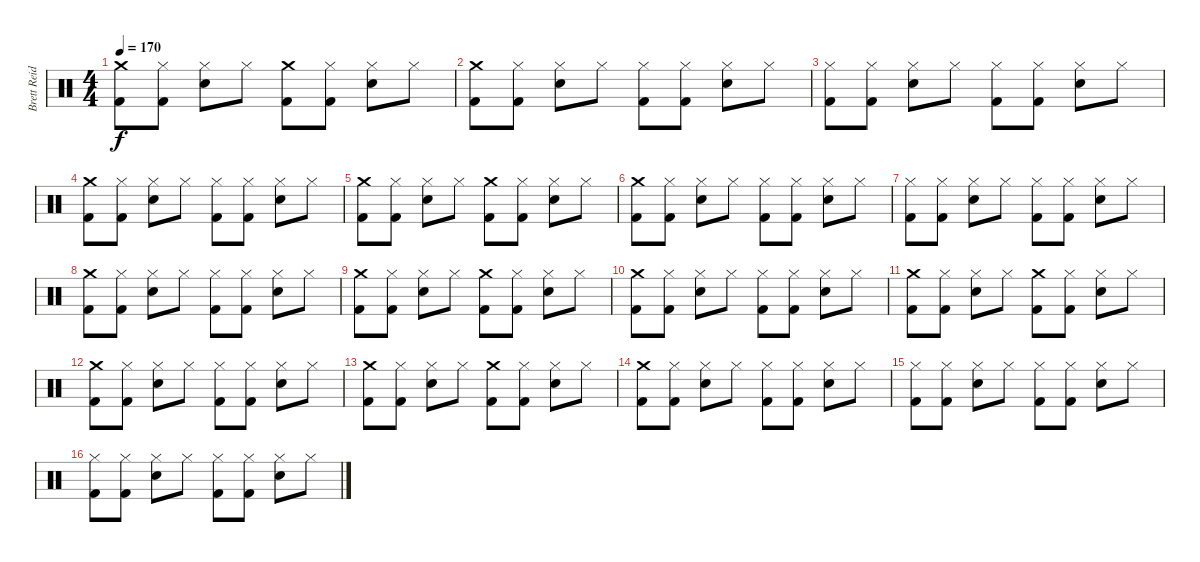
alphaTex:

\track ("Brett Reid" "Brett Reid") {instrument percussion}
\staff {score}
\articulation defaults
\ts (4 4)
\tempo 170
\clef neutral
\ks c
("Crash medium (hit)" "Kick (hit) 2").8{dy f} ("Hi-Hat (closed)" "Kick (hit) 2").8 ("Hi-Hat (closed)" "Snare (hit) 2").8 "Hi-Hat (closed)".8 ("Crash medium (hit)" "Kick (hit) 2").8 ("Hi-Hat (closed)" "Kick (hit) 2").8 ("Hi-Hat (closed)" "Snare (hit) 2").8 "Hi-Hat (closed)".8 |
("Crash medium (hit)" "Kick (hit) 2").8 ("Hi-Hat (closed)" "Kick (hit) 2").8 ("Hi-Hat (closed)" "Snare (hit) 2").8 "Hi-Hat (closed)".8 ("Hi-Hat (closed)" "Kick (hit) 2").8 ("Hi-Hat (closed)" "Kick (hit) 2").8 ("Hi-Hat (closed)" "Snare (hit) 2").8 "Hi-Hat (closed)".8 |
("Hi-Hat (closed)" "Kick (hit) 2").8 ("Hi-Hat (closed)" "Kick (hit) 2").8 ("Hi-Hat (closed)" "Snare (hit) 2").8 "Hi-Hat (closed)".8 ("Hi-Hat (closed)" "Kick (hit) 2").8 ("Hi-Hat (closed)" "Kick (hit) 2").8 ("Hi-Hat (closed)" "Snare (hit) 2").8 "Hi-Hat (closed)".8 |
("Crash medium (hit)" "Kick (hit) 2").8 ("Hi-Hat (closed)" "Kick (hit) 2").8 ("Hi-Hat (closed)" "Snare (hit) 2").8 "Hi-Hat (closed)".8 ("Hi-Hat (closed)" "Kick (hit) 2").8 ("Hi-Hat (closed)" "Kick (hit) 2").8 ("Hi-Hat (closed)" "Snare (hit) 2").8 "Hi-Hat (closed)".8 |
("Crash medium (hit)" "Kick (hit) 2").8 ("Hi-Hat (closed)" "Kick (hit) 2").8 ("Hi-Hat (closed)" "Snare (hit) 2").8 "Hi-Hat (closed)".8 ("Crash medium (hit)" "Kick (hit) 2").8 ("Hi-Hat (closed)" "Kick (hit) 2").8 ("Hi-Hat (closed)" "Snare (hit) 2").8 "Hi-Hat (closed)".8 |
("Crash medium (hit)" "Kick (hit) 2").8 ("Hi-Hat (closed)" "Kick (hit) 2").8 ("Hi-Hat (closed)" "Snare (hit) 2").8 "Hi-Hat (closed)".8 ("Hi-Hat (closed)" "Kick (hit) 2").8 ("Hi-Hat (closed)" "Kick (hit) 2").8 ("Hi-Hat (closed)" "Snare (hit) 2").8 "Hi-Hat (closed)".8 |
("Hi-Hat (closed)" "Kick (hit) 2").8 ("Hi-Hat (closed)" "Kick (hit) 2").8 ("Hi-Hat (closed)" "Snare (hit) 2").8 "Hi-Hat (closed)".8 ("Hi-Hat (closed)" "Kick (hit) 2").8 ("Hi-Hat (closed)" "Kick (hit) 2").8 ("Hi-Hat (closed)" "Snare (hit) 2").8 "Hi-Hat (closed)".8 |
("Crash medium (hit)" "Kick (hit) 2").8 ("Hi-Hat (closed)" "Kick (hit) 2").8 ("Hi-Hat (closed)" "Snare (hit) 2").8 "Hi-Hat (closed)".8 ("Hi-Hat (closed)" "Kick (hit) 2").8 ("Hi-Hat (closed)" "Kick (hit) 2").8 ("Hi-Hat (closed)" "Snare (hit) 2").8 "Hi-Hat (closed)".8 |
("Crash medium (hit)" "Kick (hit) 2").8 ("Hi-Hat (closed)" "Kick (hit) 2").8 ("Hi-Hat (closed)" "Snare (hit) 2").8 "Hi-Hat (closed)".8 ("Crash medium (hit)" "Kick (hit) 2").8 ("Hi-Hat (closed)" "Kick (hit) 2").8 ("Hi-Hat (closed)" "Snare (hit) 2").8 "Hi-Hat (closed)".8 |
("Crash medium (hit)" "Kick (hit) 2").8 ("Hi-Hat (closed)" "Kick (hit) 2").8 ("Hi-Hat (closed)" "Snare (hit) 2").8 "Hi-Hat (closed)".8 ("Hi-Hat (closed)" "Kick (hit) 2").8 ("Hi-Hat (closed)" "Kick (hit) 2").8 ("Hi-Hat (closed)" "Snare (hit) 2").8 "Hi-Hat (closed)".8 |
("Crash medium (hit)" "Kick (hit) 2").8 ("Hi-Hat (closed)" "Kick (hit) 2").8 ("Hi-Hat (closed)" "Snare (hit) 2").8 "Hi-Hat (closed)".8 ("Crash medium (hit)" "Kick (hit) 2").8 ("Hi-Hat (closed)" "Kick (hit) 2").8 ("Hi-Hat (closed)" "Snare (hit) 2").8 "Hi-Hat (closed)".8 |
("Crash medium (hit)" "Kick (hit) 2").8 ("Hi-Hat (closed)" "Kick (hit) 2").8 ("Hi-Hat (closed)" "Snare (hit) 2").8 "Hi-Hat (closed)".8 ("Hi-Hat (closed)" "Kick (hit) 2").8 ("Hi-Hat (closed)" "Kick (hit) 2").8 ("Hi-Hat (closed)" "Snare (hit) 2").8 "Hi-Hat (closed)".8 |
("Crash medium (hit)" "Kick (hit) 2").8 ("Hi-Hat (closed)" "Kick (hit) 2").8 ("Hi-Hat (closed)" "Snare (hit) 2").8 "Hi-Hat (closed)".8 ("Crash medium (hit)" "Kick (hit) 2").8 ("Hi-Hat (closed)" "Kick (hit) 2").8 ("Hi-Hat (closed)" "Snare (hit) 2").8 "Hi-Hat (closed)".8 |
("Crash medium (hit)" "Kick (hit) 2").8 ("Hi-Hat (closed)" "Kick (hit) 2").8 ("Hi-Hat (closed)" "Snare (hit) 2").8 "Hi-Hat (closed)".8 ("Hi-Hat (closed)" "Kick (hit) 2").8 ("Hi-Hat (closed)" "Kick (hit) 2").8 ("Hi-Hat (closed)" "Snare (hit) 2").8 "Hi-Hat (closed)".8 |
("Hi-Hat (closed)" "Kick (hit) 2").8 ("Hi-Hat (closed)" "Kick (hit) 2").8 ("Hi-Hat (closed)" "Snare (hit) 2").8 "Hi-Hat (closed)".8 ("Hi-Hat (closed)" "Kick (hit) 2").8 ("Hi-Hat (closed)" "Kick (hit) 2").8 ("Hi-Hat (closed)" "Snare (hit) 2").8 "Hi-Hat (closed)".8 |
("Hi-Hat (closed)" "Kick (hit) 2").8 ("Hi-Hat (closed)" "Kick (hit) 2").8 ("Hi-Hat (closed)" "Snare (hit) 2").8 "Hi-Hat (closed)".8 ("Hi-Hat (closed)" "Kick (hit) 2").8 ("Hi-Hat (closed)" "Kick (hit) 2").8 ("Hi-Hat (closed)" "Snare (hit) 2").8 "Hi-Hat (closed)".8
